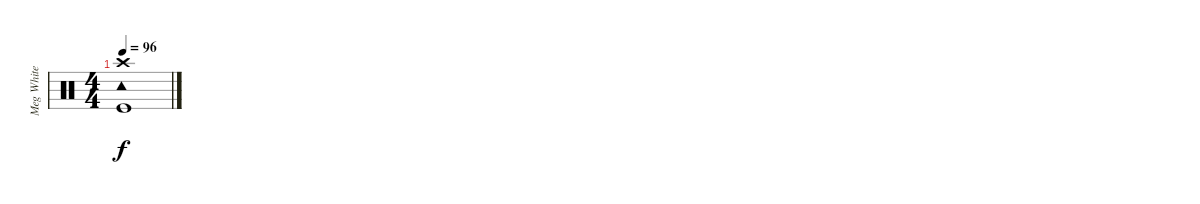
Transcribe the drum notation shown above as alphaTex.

\track ("Meg White" "Meg White") {instrument percussion}
\staff {score}
\articulation defaults
\ts (4 4)
\tempo 96
\clef neutral
\ks c
("Kick (hit)" "Tambourine (hit)" "Crash high (hit)").1{dy f}
